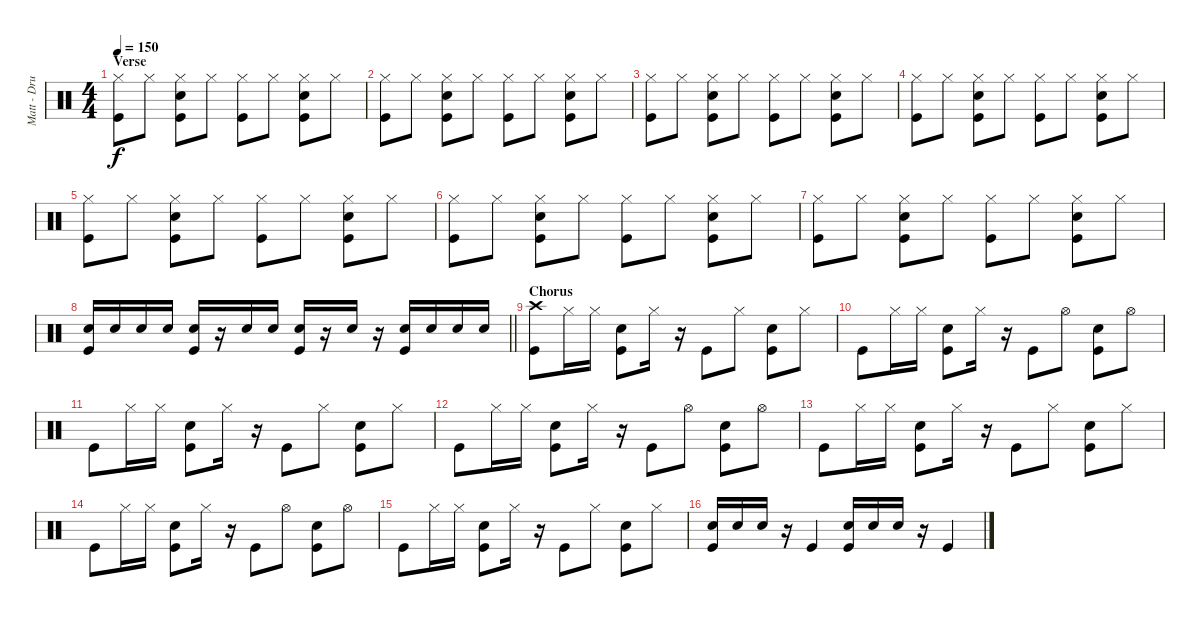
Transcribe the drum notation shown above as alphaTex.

\track ("Matt - Drums" "Matt - Dru") {instrument percussion}
\staff {score}
\articulation defaults
\ts (4 4)
\section ("" "Verse")
\tempo 150
\clef neutral
\ks c
("Hi-Hat (closed)" "Kick (hit)").8{dy f} "Hi-Hat (closed)".8 ("Hi-Hat (closed)" "Electric Snare (hit)" "Kick (hit)").8 "Hi-Hat (closed)".8 ("Hi-Hat (closed)" "Kick (hit)").8 "Hi-Hat (closed)".8 ("Hi-Hat (closed)" "Electric Snare (hit)" "Kick (hit)").8 "Hi-Hat (closed)".8 |
("Hi-Hat (closed)" "Kick (hit)").8 "Hi-Hat (closed)".8 ("Hi-Hat (closed)" "Electric Snare (hit)" "Kick (hit)").8 "Hi-Hat (closed)".8 ("Hi-Hat (closed)" "Kick (hit)").8 "Hi-Hat (closed)".8 ("Hi-Hat (closed)" "Electric Snare (hit)" "Kick (hit)").8 "Hi-Hat (closed)".8 |
("Hi-Hat (closed)" "Kick (hit)").8 "Hi-Hat (closed)".8 ("Hi-Hat (closed)" "Electric Snare (hit)" "Kick (hit)").8 "Hi-Hat (closed)".8 ("Hi-Hat (closed)" "Kick (hit)").8 "Hi-Hat (closed)".8 ("Hi-Hat (closed)" "Electric Snare (hit)" "Kick (hit)").8 "Hi-Hat (closed)".8 |
("Hi-Hat (closed)" "Kick (hit)").8 "Hi-Hat (closed)".8 ("Hi-Hat (closed)" "Electric Snare (hit)" "Kick (hit)").8 "Hi-Hat (closed)".8 ("Hi-Hat (closed)" "Kick (hit)").8 "Hi-Hat (closed)".8 ("Hi-Hat (closed)" "Electric Snare (hit)" "Kick (hit)").8 "Hi-Hat (closed)".8 |
("Hi-Hat (closed)" "Kick (hit)").8 "Hi-Hat (closed)".8 ("Hi-Hat (closed)" "Electric Snare (hit)" "Kick (hit)").8 "Hi-Hat (closed)".8 ("Hi-Hat (closed)" "Kick (hit)").8 "Hi-Hat (closed)".8 ("Hi-Hat (closed)" "Electric Snare (hit)" "Kick (hit)").8 "Hi-Hat (closed)".8 |
("Hi-Hat (closed)" "Kick (hit)").8 "Hi-Hat (closed)".8 ("Hi-Hat (closed)" "Electric Snare (hit)" "Kick (hit)").8 "Hi-Hat (closed)".8 ("Hi-Hat (closed)" "Kick (hit)").8 "Hi-Hat (closed)".8 ("Hi-Hat (closed)" "Electric Snare (hit)" "Kick (hit)").8 "Hi-Hat (closed)".8 |
("Hi-Hat (closed)" "Kick (hit)").8 "Hi-Hat (closed)".8 ("Hi-Hat (closed)" "Electric Snare (hit)" "Kick (hit)").8 "Hi-Hat (closed)".8 ("Hi-Hat (closed)" "Kick (hit)").8 "Hi-Hat (closed)".8 ("Hi-Hat (closed)" "Electric Snare (hit)" "Kick (hit)").8 "Hi-Hat (closed)".8 |
\barLineRight lightlight
("Electric Snare (hit)" "Kick (hit)").16 "Electric Snare (hit)".16 "Electric Snare (hit)".16 "Electric Snare (hit)".16 ("Electric Snare (hit)" "Kick (hit)").16 r.16 "Electric Snare (hit)".16 "Electric Snare (hit)".16 ("Electric Snare (hit)" "Kick (hit)").16 r.16 "Electric Snare (hit)".16 r.16 ("Electric Snare (hit)" "Kick (hit)").16 "Electric Snare (hit)".16 "Electric Snare (hit)".16 "Electric Snare (hit)".16 |
\section ("" "Chorus")
("Crash high (hit)" "Kick (hit)").8 "Hi-Hat (closed)".16 "Hi-Hat (closed)".16 ("Electric Snare (hit)" "Kick (hit)").8 "Hi-Hat (closed)".16 r.16 "Kick (hit)".8 "Hi-Hat (closed)".8 ("Electric Snare (hit)" "Kick (hit)").8 "Hi-Hat (closed)".8 |
"Kick (hit)".8 "Hi-Hat (closed)".16 "Hi-Hat (closed)".16 ("Electric Snare (hit)" "Kick (hit)").8 "Hi-Hat (closed)".16 r.16 "Kick (hit)".8 "Hi-Hat (open)".8 ("Electric Snare (hit)" "Kick (hit)").8 "Hi-Hat (open)".8 |
"Kick (hit)".8 "Hi-Hat (closed)".16 "Hi-Hat (closed)".16 ("Electric Snare (hit)" "Kick (hit)").8 "Hi-Hat (closed)".16 r.16 "Kick (hit)".8 "Hi-Hat (closed)".8 ("Electric Snare (hit)" "Kick (hit)").8 "Hi-Hat (closed)".8 |
"Kick (hit)".8 "Hi-Hat (closed)".16 "Hi-Hat (closed)".16 ("Electric Snare (hit)" "Kick (hit)").8 "Hi-Hat (closed)".16 r.16 "Kick (hit)".8 "Hi-Hat (open)".8 ("Electric Snare (hit)" "Kick (hit)").8 "Hi-Hat (open)".8 |
"Kick (hit)".8 "Hi-Hat (closed)".16 "Hi-Hat (closed)".16 ("Electric Snare (hit)" "Kick (hit)").8 "Hi-Hat (closed)".16 r.16 "Kick (hit)".8 "Hi-Hat (closed)".8 ("Electric Snare (hit)" "Kick (hit)").8 "Hi-Hat (closed)".8 |
"Kick (hit)".8 "Hi-Hat (closed)".16 "Hi-Hat (closed)".16 ("Electric Snare (hit)" "Kick (hit)").8 "Hi-Hat (closed)".16 r.16 "Kick (hit)".8 "Hi-Hat (open)".8 ("Electric Snare (hit)" "Kick (hit)").8 "Hi-Hat (open)".8 |
"Kick (hit)".8 "Hi-Hat (closed)".16 "Hi-Hat (closed)".16 ("Electric Snare (hit)" "Kick (hit)").8 "Hi-Hat (closed)".16 r.16 "Kick (hit)".8 "Hi-Hat (closed)".8 ("Electric Snare (hit)" "Kick (hit)").8 "Hi-Hat (closed)".8 |
("Electric Snare (hit)" "Kick (hit)").16 "Electric Snare (hit)".16 "Electric Snare (hit)".16 r.16 "Kick (hit)".4 ("Electric Snare (hit)" "Kick (hit)").16 "Electric Snare (hit)".16 "Electric Snare (hit)".16 r.16 "Kick (hit)".4
